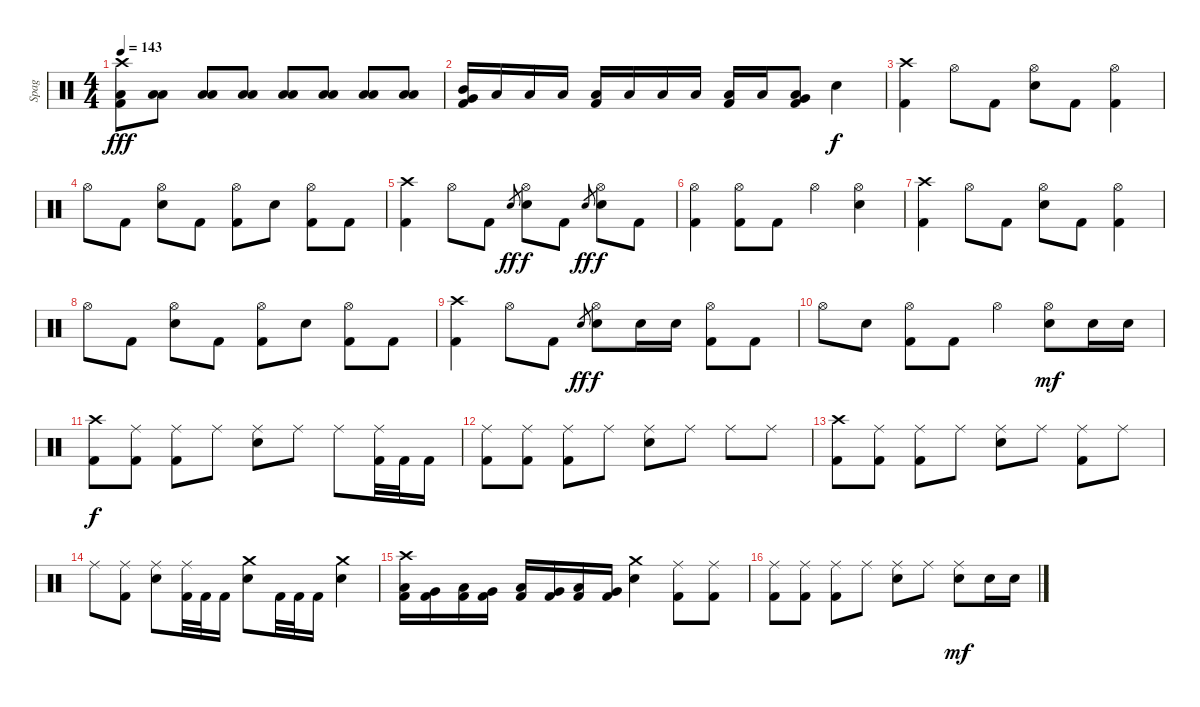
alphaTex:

\track ("Spag" "Spag") {instrument percussion}
\staff {score}
\articulation defaults
\ts (4 4)
\tempo 143
\clef neutral
\ks c
("Crash high (hit)" "Low Floor Tom (hit)" "Kick (hit) 2").8{dy fff} ("Low Tom (hit)" "Low Floor Tom (hit)").8 ("Low Tom (hit)" "Low Floor Tom (hit)").8 ("Low Tom (hit)" "Low Floor Tom (hit)").8 ("Low Tom (hit)" "Low Floor Tom (hit)").8 ("Low Tom (hit)" "Low Floor Tom (hit)").8 ("Low Tom (hit)" "Low Floor Tom (hit)").8 ("Low Tom (hit)" "Low Floor Tom (hit)").8 |
("Mid Tom (hit)" "Very Low Tom (hit)" "Kick (hit) 2").16 "Low Floor Tom (hit)".16 "Low Tom (hit)".16 "Low Floor Tom (hit)".16 ("Low Tom (hit)" "Kick (hit) 2").16 "Low Floor Tom (hit)".16 "Low Tom (hit)".16 "Low Floor Tom (hit)".16 ("Low Tom (hit)" "Kick (hit) 2").16 "Low Floor Tom (hit)".16 ("Very Low Tom (hit)" "Low Floor Tom (hit)" "Kick (hit) 2").8 "Electric Snare (hit)".4{dy f} |
("Crash high (hit)" "Kick (hit) 2").4 "Hi-Hat (open)".8 "Kick (hit) 2".8 ("Hi-Hat (open)" "Electric Snare (hit)").8 "Kick (hit) 2".8 ("Hi-Hat (open)" "Kick (hit) 2").4 |
"Hi-Hat (open)".8 "Kick (hit) 2".8 ("Hi-Hat (open)" "Electric Snare (hit)").8 "Kick (hit) 2".8 ("Hi-Hat (open)" "Kick (hit) 2").8 "Electric Snare (hit)".8 ("Hi-Hat (open)" "Kick (hit) 2").8 "Kick (hit) 2".8 |
("Crash high (hit)" "Kick (hit) 2").4 "Hi-Hat (open)".8 "Kick (hit) 2".8 "Electric Snare (hit)".8{gr dy ff} ("Hi-Hat (open)" "Electric Snare (hit)").8{dy f} "Kick (hit) 2".8 "Electric Snare (hit)".8{gr dy ff} ("Hi-Hat (open)" "Electric Snare (hit)").8{dy f} "Kick (hit) 2".8 |
("Hi-Hat (open)" "Kick (hit) 2").4 ("Hi-Hat (open)" "Kick (hit) 2").8 "Kick (hit) 2".8 "Hi-Hat (open)".4 ("Hi-Hat (open)" "Electric Snare (hit)").4 |
("Crash high (hit)" "Kick (hit) 2").4 "Hi-Hat (open)".8 "Kick (hit) 2".8 ("Hi-Hat (open)" "Electric Snare (hit)").8 "Kick (hit) 2".8 ("Hi-Hat (open)" "Kick (hit) 2").4 |
"Hi-Hat (open)".8 "Kick (hit) 2".8 ("Hi-Hat (open)" "Electric Snare (hit)").8 "Kick (hit) 2".8 ("Hi-Hat (open)" "Kick (hit) 2").8 "Electric Snare (hit)".8 ("Hi-Hat (open)" "Kick (hit) 2").8 "Kick (hit) 2".8 |
("Crash high (hit)" "Kick (hit) 2").4 "Hi-Hat (open)".8 "Kick (hit) 2".8 "Electric Snare (hit)".8{gr dy ff} ("Hi-Hat (open)" "Electric Snare (hit)").8{dy f} "Electric Snare (hit)".16 "Electric Snare (hit)".16 ("Hi-Hat (open)" "Kick (hit) 2").8 "Kick (hit) 2".8 |
"Hi-Hat (open)".8 "Electric Snare (hit)".8 ("Hi-Hat (open)" "Kick (hit) 2").8 "Kick (hit) 2".8 "Hi-Hat (open)".4 ("Hi-Hat (open)" "Electric Snare (hit)").8{dy mf} "Electric Snare (hit)".16 "Electric Snare (hit)".16 |
("Crash high (hit)" "Kick (hit) 2").8{dy f} ("Ride (middle)" "Kick (hit) 2").8 ("Ride (middle)" "Kick (hit) 2").8 "Ride (middle)".8 ("Ride (middle)" "Electric Snare (hit)").8 "Ride (middle)".8 "Ride (middle)".8 ("Ride (middle)" "Kick (hit) 2").32 "Kick (hit) 2".32 "Kick (hit) 2".16 |
("Ride (middle)" "Kick (hit) 2").8 ("Ride (middle)" "Kick (hit) 2").8 ("Ride (middle)" "Kick (hit) 2").8 "Ride (middle)".8 ("Ride (middle)" "Electric Snare (hit)").8 "Ride (middle)".8 "Ride (middle)".8 "Ride (middle)".8 |
("Crash high (hit)" "Kick (hit) 2").8 ("Ride (middle)" "Kick (hit) 2").8 ("Ride (middle)" "Kick (hit) 2").8 "Ride (middle)".8 ("Ride (middle)" "Electric Snare (hit)").8 "Ride (middle)".8 ("Ride (middle)" "Kick (hit) 2").8 "Ride (middle)".8 |
"Ride (middle)".8 ("Ride (middle)" "Kick (hit) 2").8 ("Ride (middle)" "Electric Snare (hit)").8 ("Ride (middle)" "Kick (hit) 2").32 "Kick (hit) 2".32 "Kick (hit) 2".16 ("Crash medium (hit)" "Electric Snare (hit)").8 "Kick (hit) 2".32 "Kick (hit) 2".32 "Kick (hit) 2".16 ("Crash medium (hit)" "Electric Snare (hit)").4 |
("Crash high (hit)" "Low Floor Tom (hit)" "Kick (hit) 2").16 ("Very Low Tom (hit)" "Kick (hit) 2").16 ("Low Floor Tom (hit)" "Kick (hit) 2").16 ("Very Low Tom (hit)" "Kick (hit) 2").16 ("Low Floor Tom (hit)" "Kick (hit) 2").16 ("Very Low Tom (hit)" "Kick (hit) 2").16 ("Low Floor Tom (hit)" "Kick (hit) 2").16 ("Very Low Tom (hit)" "Kick (hit) 2").16 ("Crash medium (hit)" "Electric Snare (hit)").4 ("Ride (middle)" "Kick (hit) 2").8 ("Ride (middle)" "Kick (hit) 2").8 |
("Ride (middle)" "Kick (hit) 2").8 ("Ride (middle)" "Kick (hit) 2").8 ("Ride (middle)" "Kick (hit) 2").8 "Ride (middle)".8 ("Ride (middle)" "Electric Snare (hit)").8 "Ride (middle)".8 ("Ride (middle)" "Electric Snare (hit)").8{dy mf} "Electric Snare (hit)".16 "Electric Snare (hit)".16
